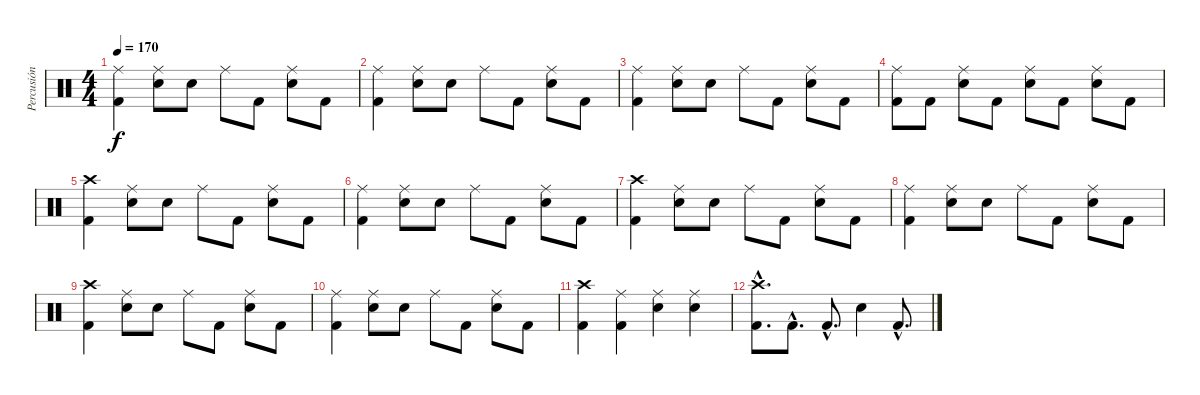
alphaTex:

\track ("Percusión" "Percusión") {instrument percussion}
\staff {score}
\articulation defaults
\ts (4 4)
\tempo 170
\clef neutral
\ks c
("Ride (middle)" "Kick (hit) 2").4{dy f} ("Ride (middle)" "Electric Snare (hit)").8 "Electric Snare (hit)".8 "Ride (middle)".8 "Kick (hit) 2".8 ("Ride (middle)" "Electric Snare (hit)").8 "Kick (hit) 2".8 |
("Ride (middle)" "Kick (hit) 2").4 ("Ride (middle)" "Electric Snare (hit)").8 "Electric Snare (hit)".8 "Ride (middle)".8 "Kick (hit) 2".8 ("Ride (middle)" "Electric Snare (hit)").8 "Kick (hit) 2".8 |
("Ride (middle)" "Kick (hit) 2").4 ("Ride (middle)" "Electric Snare (hit)").8 "Electric Snare (hit)".8 "Ride (middle)".8 "Kick (hit) 2".8 ("Ride (middle)" "Electric Snare (hit)").8 "Kick (hit) 2".8 |
("Ride (middle)" "Kick (hit) 2").8 "Kick (hit) 2".8 ("Ride (middle)" "Electric Snare (hit)").8 "Kick (hit) 2".8 ("Ride (middle)" "Electric Snare (hit)").8 "Kick (hit) 2".8 ("Ride (middle)" "Electric Snare (hit)").8 "Kick (hit) 2".8 |
("Crash high (hit)" "Kick (hit) 2").4 ("Ride (middle)" "Electric Snare (hit)").8 "Electric Snare (hit)".8 "Ride (middle)".8 "Kick (hit) 2".8 ("Ride (middle)" "Electric Snare (hit)").8 "Kick (hit) 2".8 |
("Ride (middle)" "Kick (hit) 2").4 ("Ride (middle)" "Electric Snare (hit)").8 "Electric Snare (hit)".8 "Ride (middle)".8 "Kick (hit) 2".8 ("Ride (middle)" "Electric Snare (hit)").8 "Kick (hit) 2".8 |
("Crash high (hit)" "Kick (hit) 2").4 ("Ride (middle)" "Electric Snare (hit)").8 "Electric Snare (hit)".8 "Ride (middle)".8 "Kick (hit) 2".8 ("Ride (middle)" "Electric Snare (hit)").8 "Kick (hit) 2".8 |
("Ride (middle)" "Kick (hit) 2").4 ("Ride (middle)" "Electric Snare (hit)").8 "Electric Snare (hit)".8 "Ride (middle)".8 "Kick (hit) 2".8 ("Ride (middle)" "Electric Snare (hit)").8 "Kick (hit) 2".8 |
("Crash high (hit)" "Kick (hit) 2").4 ("Ride (middle)" "Electric Snare (hit)").8 "Electric Snare (hit)".8 "Ride (middle)".8 "Kick (hit) 2".8 ("Ride (middle)" "Electric Snare (hit)").8 "Kick (hit) 2".8 |
("Ride (middle)" "Kick (hit) 2").4 ("Ride (middle)" "Electric Snare (hit)").8 "Electric Snare (hit)".8 "Ride (middle)".8 "Kick (hit) 2".8 ("Ride (middle)" "Electric Snare (hit)").8 "Kick (hit) 2".8 |
("Crash high (hit)" "Kick (hit) 2").4{volume 14} ("Ride (middle)" "Kick (hit) 2").4{volume 10} ("Ride (middle)" "Electric Snare (hit)").4{volume 9} ("Ride (middle)" "Electric Snare (hit)").4{volume 8} |
("Crash high (hit)"{hac} "Kick (hit) 2"{hac}).8{d} "Kick (hit) 2"{hac}.8{d} "Kick (hit) 2"{hac}.8{d} "Electric Snare (hit)".4 "Kick (hit) 2"{hac}.8{d}
